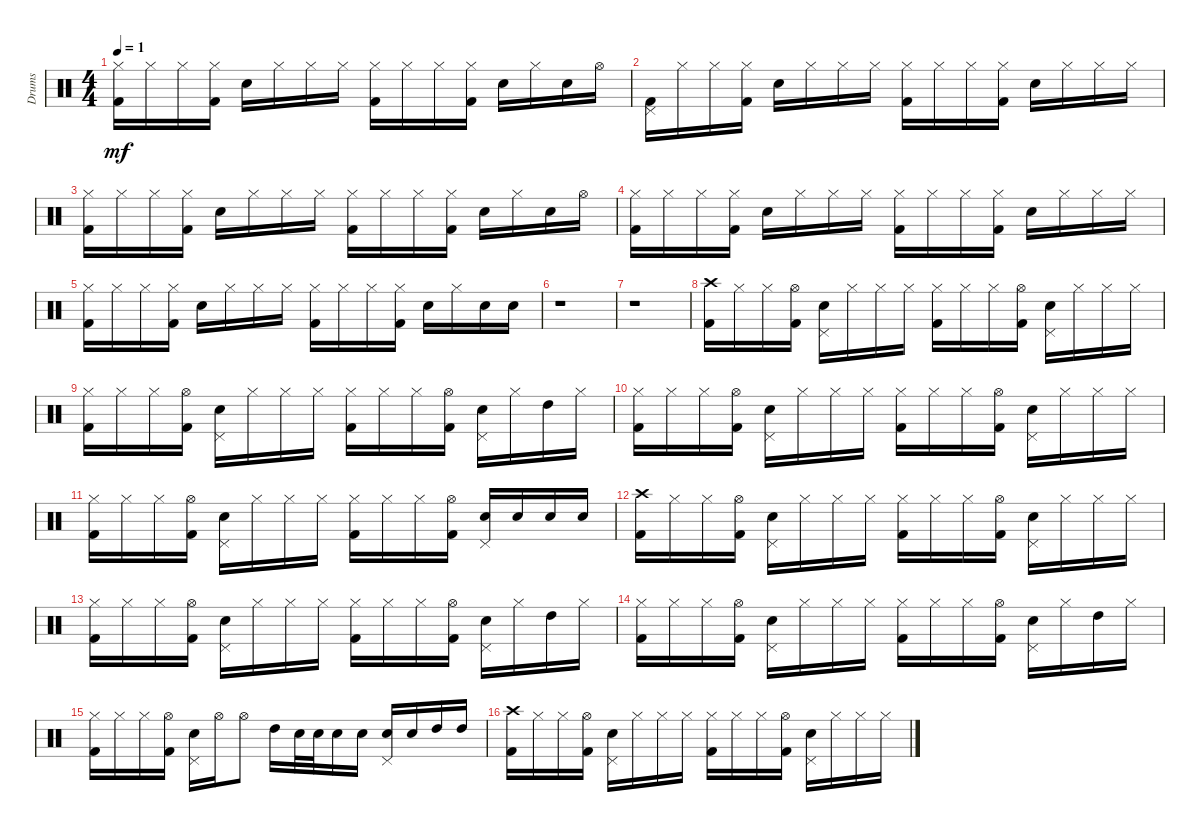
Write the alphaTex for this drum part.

\track ("Drums" "Drums") {instrument percussion}
\staff {score}
\articulation defaults
\ts (4 4)
\tempo 1
\clef neutral
\ks c
("Kick (hit) 2" "Hi-Hat (closed)").16{dy mf} "Hi-Hat (closed)".16 "Hi-Hat (closed)".16 ("Kick (hit) 2" "Hi-Hat (closed)").16 "Snare (hit) 2".16 "Hi-Hat (closed)".16 "Hi-Hat (closed)".16 "Hi-Hat (closed)".16 ("Hi-Hat (closed)" "Kick (hit) 2").16 "Hi-Hat (closed)".16 "Hi-Hat (closed)".16 ("Hi-Hat (closed)" "Kick (hit) 2").16 "Snare (hit) 2".16 "Hi-Hat (closed)".16 "Snare (hit) 2".16 "Hi-Hat (open)".16 |
("Kick (hit) 2" "Pedal Hi-Hat (hit)").16 "Hi-Hat (closed)".16 "Hi-Hat (closed)".16 ("Kick (hit) 2" "Hi-Hat (closed)").16 "Snare (hit) 2".16 "Hi-Hat (closed)".16 "Hi-Hat (closed)".16 "Hi-Hat (closed)".16 ("Hi-Hat (closed)" "Kick (hit) 2").16 "Hi-Hat (closed)".16 "Hi-Hat (closed)".16 ("Hi-Hat (closed)" "Kick (hit) 2").16 "Snare (hit) 2".16 "Hi-Hat (closed)".16 "Hi-Hat (closed)".16 "Hi-Hat (closed)".16 |
("Kick (hit) 2" "Hi-Hat (closed)").16 "Hi-Hat (closed)".16 "Hi-Hat (closed)".16 ("Kick (hit) 2" "Hi-Hat (closed)").16 "Snare (hit) 2".16 "Hi-Hat (closed)".16 "Hi-Hat (closed)".16 "Hi-Hat (closed)".16 ("Hi-Hat (closed)" "Kick (hit) 2").16 "Hi-Hat (closed)".16 "Hi-Hat (closed)".16 ("Hi-Hat (closed)" "Kick (hit) 2").16 "Snare (hit) 2".16 "Hi-Hat (closed)".16 "Snare (hit) 2".16 "Hi-Hat (open)".16 |
("Kick (hit) 2" "Hi-Hat (closed)").16 "Hi-Hat (closed)".16 "Hi-Hat (closed)".16 ("Kick (hit) 2" "Hi-Hat (closed)").16 "Snare (hit) 2".16 "Hi-Hat (closed)".16 "Hi-Hat (closed)".16 "Hi-Hat (closed)".16 ("Hi-Hat (closed)" "Kick (hit) 2").16 "Hi-Hat (closed)".16 "Hi-Hat (closed)".16 ("Hi-Hat (closed)" "Kick (hit) 2").16 "Snare (hit) 2".16 "Hi-Hat (closed)".16 "Hi-Hat (closed)".16 "Hi-Hat (closed)".16 |
("Kick (hit) 2" "Hi-Hat (closed)").16 "Hi-Hat (closed)".16 "Hi-Hat (closed)".16 ("Kick (hit) 2" "Hi-Hat (closed)").16 "Snare (hit) 2".16 "Hi-Hat (closed)".16 "Hi-Hat (closed)".16 "Hi-Hat (closed)".16 ("Hi-Hat (closed)" "Kick (hit) 2").16 "Hi-Hat (closed)".16 "Hi-Hat (closed)".16 ("Hi-Hat (closed)" "Kick (hit) 2").16 "Snare (hit) 2".16 "Hi-Hat (closed)".16 "Snare (hit) 2".16 "Snare (hit) 2".16 |
r.1 |
r.1 |
("Kick (hit) 2" "Crash high (hit)").16 "Hi-Hat (closed)".16 "Hi-Hat (closed)".16 ("Kick (hit) 2" "Hi-Hat (open)").16 ("Snare (hit) 2" "Pedal Hi-Hat (hit)").16 "Hi-Hat (closed)".16 "Hi-Hat (closed)".16 "Hi-Hat (closed)".16 ("Hi-Hat (closed)" "Kick (hit) 2").16 "Hi-Hat (closed)".16 "Hi-Hat (closed)".16 ("Hi-Hat (open)" "Kick (hit) 2").16 ("Snare (hit) 2" "Pedal Hi-Hat (hit)").16 "Hi-Hat (closed)".16 "Hi-Hat (closed)".16 "Hi-Hat (closed)".16 |
("Kick (hit) 2" "Hi-Hat (closed)").16 "Hi-Hat (closed)".16 "Hi-Hat (closed)".16 ("Kick (hit) 2" "Hi-Hat (open)").16 ("Snare (hit) 2" "Pedal Hi-Hat (hit)").16 "Hi-Hat (closed)".16 "Hi-Hat (closed)".16 "Hi-Hat (closed)".16 ("Hi-Hat (closed)" "Kick (hit) 2").16 "Hi-Hat (closed)".16 "Hi-Hat (closed)".16 ("Hi-Hat (open)" "Kick (hit) 2").16 ("Snare (hit) 2" "Pedal Hi-Hat (hit)").16 "Hi-Hat (closed)".16 "High Tom (hit)".16 "Hi-Hat (closed)".16 |
("Kick (hit) 2" "Hi-Hat (closed)").16 "Hi-Hat (closed)".16 "Hi-Hat (closed)".16 ("Kick (hit) 2" "Hi-Hat (open)").16 ("Snare (hit) 2" "Pedal Hi-Hat (hit)").16 "Hi-Hat (closed)".16 "Hi-Hat (closed)".16 "Hi-Hat (closed)".16 ("Hi-Hat (closed)" "Kick (hit) 2").16 "Hi-Hat (closed)".16 "Hi-Hat (closed)".16 ("Hi-Hat (open)" "Kick (hit) 2").16 ("Snare (hit) 2" "Pedal Hi-Hat (hit)").16 "Hi-Hat (closed)".16 "Hi-Hat (closed)".16 "Hi-Hat (closed)".16 |
("Kick (hit) 2" "Hi-Hat (closed)").16 "Hi-Hat (closed)".16 "Hi-Hat (closed)".16 ("Kick (hit) 2" "Hi-Hat (open)").16 ("Snare (hit) 2" "Pedal Hi-Hat (hit)").16 "Hi-Hat (closed)".16 "Hi-Hat (closed)".16 "Hi-Hat (closed)".16 ("Hi-Hat (closed)" "Kick (hit) 2").16 "Hi-Hat (closed)".16 "Hi-Hat (closed)".16 ("Hi-Hat (open)" "Kick (hit) 2").16 ("Snare (hit) 2" "Pedal Hi-Hat (hit)").16 "Snare (hit) 2".16 "Snare (hit) 2".16 "Snare (hit) 2".16 |
("Kick (hit) 2" "Crash high (hit)").16 "Hi-Hat (closed)".16 "Hi-Hat (closed)".16 ("Kick (hit) 2" "Hi-Hat (open)").16 ("Snare (hit) 2" "Pedal Hi-Hat (hit)").16 "Hi-Hat (closed)".16 "Hi-Hat (closed)".16 "Hi-Hat (closed)".16 ("Hi-Hat (closed)" "Kick (hit) 2").16 "Hi-Hat (closed)".16 "Hi-Hat (closed)".16 ("Hi-Hat (open)" "Kick (hit) 2").16 ("Snare (hit) 2" "Pedal Hi-Hat (hit)").16 "Hi-Hat (closed)".16 "Hi-Hat (closed)".16 "Hi-Hat (closed)".16 |
("Kick (hit) 2" "Hi-Hat (closed)").16 "Hi-Hat (closed)".16 "Hi-Hat (closed)".16 ("Kick (hit) 2" "Hi-Hat (open)").16 ("Snare (hit) 2" "Pedal Hi-Hat (hit)").16 "Hi-Hat (closed)".16 "Hi-Hat (closed)".16 "Hi-Hat (closed)".16 ("Hi-Hat (closed)" "Kick (hit) 2").16 "Hi-Hat (closed)".16 "Hi-Hat (closed)".16 ("Hi-Hat (open)" "Kick (hit) 2").16 ("Snare (hit) 2" "Pedal Hi-Hat (hit)").16 "Hi-Hat (closed)".16 "High Tom (hit)".16 "Hi-Hat (closed)".16 |
("Kick (hit) 2" "Hi-Hat (closed)").16 "Hi-Hat (closed)".16 "Hi-Hat (closed)".16 ("Kick (hit) 2" "Hi-Hat (open)").16 ("Snare (hit) 2" "Pedal Hi-Hat (hit)").16 "Hi-Hat (closed)".16 "Hi-Hat (closed)".16 "Hi-Hat (closed)".16 ("Hi-Hat (closed)" "Kick (hit) 2").16 "Hi-Hat (closed)".16 "Hi-Hat (closed)".16 ("Hi-Hat (open)" "Kick (hit) 2").16 ("Snare (hit) 2" "Pedal Hi-Hat (hit)").16 "Hi-Hat (closed)".16 "High Tom (hit)".16 "Hi-Hat (closed)".16 |
("Kick (hit) 2" "Hi-Hat (closed)").16 "Hi-Hat (closed)".16 "Hi-Hat (closed)".16 ("Kick (hit) 2" "Hi-Hat (open)").16 ("Snare (hit) 2" "Pedal Hi-Hat (hit)").16 "Hi-Hat (open)".16 "Hi-Hat (open)".8 "High Tom (hit)".16 "Snare (hit) 2".32 "Snare (hit) 2".32 "Snare (hit) 2".16 "Snare (hit) 2".16 ("Snare (hit) 2" "Pedal Hi-Hat (hit)").16 "Snare (hit) 2".16 "High Tom (hit)".16 "High Tom (hit)".16 |
("Kick (hit) 2" "Crash high (hit)").16 "Hi-Hat (closed)".16 "Hi-Hat (closed)".16 ("Kick (hit) 2" "Hi-Hat (open)").16 ("Snare (hit) 2" "Pedal Hi-Hat (hit)").16 "Hi-Hat (closed)".16 "Hi-Hat (closed)".16 "Hi-Hat (closed)".16 ("Hi-Hat (closed)" "Kick (hit) 2").16 "Hi-Hat (closed)".16 "Hi-Hat (closed)".16 ("Hi-Hat (open)" "Kick (hit) 2").16 ("Snare (hit) 2" "Pedal Hi-Hat (hit)").16 "Hi-Hat (closed)".16 "Hi-Hat (closed)".16 "Hi-Hat (closed)".16
